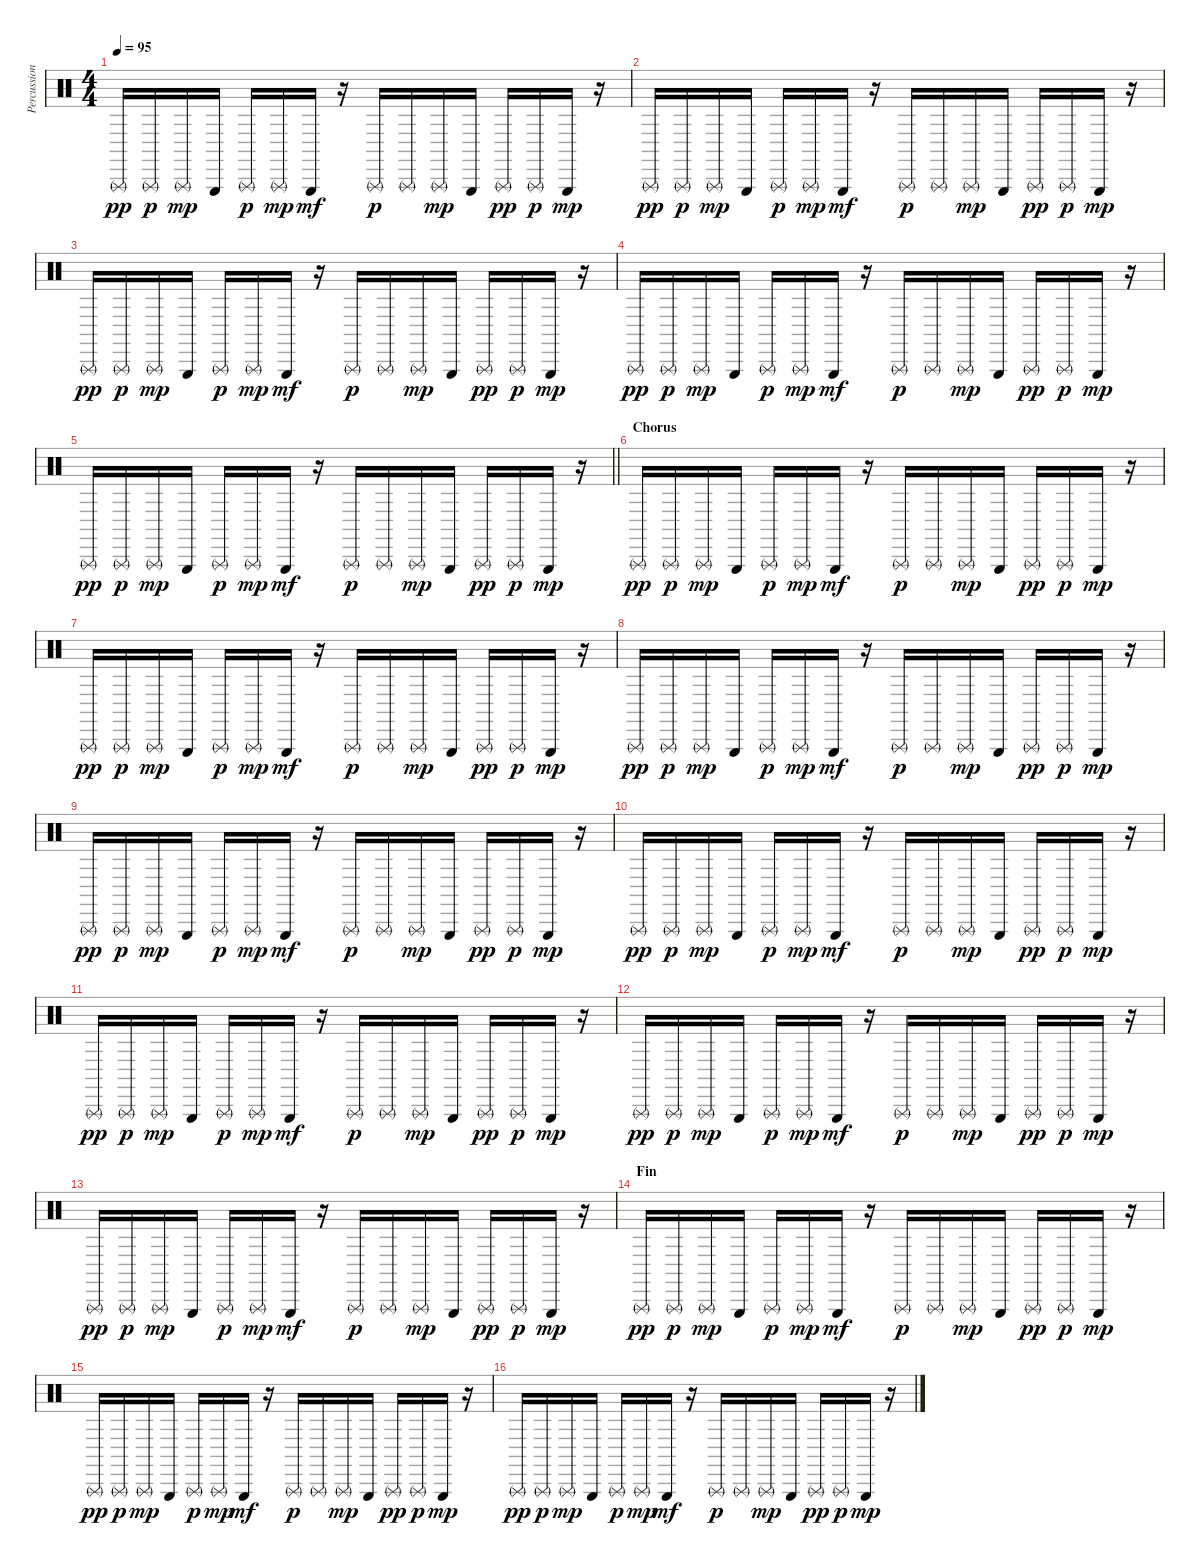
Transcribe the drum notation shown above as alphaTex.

\track ("Percussions" "Percussion") {instrument percussion}
\staff {score}
\articulation defaults
\ts (4 4)
\tempo 95
\clef neutral
\ks c "Triangle (rnute)".16{dy pp} "Triangle (rnute)".16{dy p} "Triangle (rnute)".16{dy mp} "Triangle (hit)".16 "Triangle (rnute)".16{dy p} "Triangle (rnute)".16{dy mp} "Triangle (hit)".16{dy mf}
r.16 "Triangle (rnute)".16{dy p} "Triangle (rnute)".16 "Triangle (rnute)".16{dy mp} "Triangle (hit)".16 "Triangle (rnute)".16{dy pp} "Triangle (rnute)".16{dy p} "Triangle (hit)".16{dy mp} r.16 |
"Triangle (rnute)".16{dy pp} "Triangle (rnute)".16{dy p} "Triangle (rnute)".16{dy mp} "Triangle (hit)".16 "Triangle (rnute)".16{dy p} "Triangle (rnute)".16{dy mp} "Triangle (hit)".16{dy mf} r.16 "Triangle (rnute)".16{dy p} "Triangle (rnute)".16 "Triangle (rnute)".16{dy mp} "Triangle (hit)".16 "Triangle (rnute)".16{dy pp} "Triangle (rnute)".16{dy p} "Triangle (hit)".16{dy mp} r.16 |
"Triangle (rnute)".16{dy pp} "Triangle (rnute)".16{dy p} "Triangle (rnute)".16{dy mp} "Triangle (hit)".16 "Triangle (rnute)".16{dy p} "Triangle (rnute)".16{dy mp} "Triangle (hit)".16{dy mf} r.16 "Triangle (rnute)".16{dy p} "Triangle (rnute)".16 "Triangle (rnute)".16{dy mp} "Triangle (hit)".16 "Triangle (rnute)".16{dy pp} "Triangle (rnute)".16{dy p} "Triangle (hit)".16{dy mp} r.16 |
"Triangle (rnute)".16{dy pp} "Triangle (rnute)".16{dy p} "Triangle (rnute)".16{dy mp} "Triangle (hit)".16 "Triangle (rnute)".16{dy p} "Triangle (rnute)".16{dy mp} "Triangle (hit)".16{dy mf} r.16 "Triangle (rnute)".16{dy p} "Triangle (rnute)".16 "Triangle (rnute)".16{dy mp} "Triangle (hit)".16 "Triangle (rnute)".16{dy pp} "Triangle (rnute)".16{dy p} "Triangle (hit)".16{dy mp} r.16 |
\barLineRight lightlight "Triangle (rnute)".16{dy pp} "Triangle (rnute)".16{dy p} "Triangle (rnute)".16{dy mp} "Triangle (hit)".16 "Triangle (rnute)".16{dy p} "Triangle (rnute)".16{dy mp} "Triangle (hit)".16{dy mf}
r.16 "Triangle (rnute)".16{dy p} "Triangle (rnute)".16 "Triangle (rnute)".16{dy mp} "Triangle (hit)".16 "Triangle (rnute)".16{dy pp} "Triangle (rnute)".16{dy p} "Triangle (hit)".16{dy mp} r.16 |
\section ("" "Chorus")
"Triangle (rnute)".16{dy pp} "Triangle (rnute)".16{dy p} "Triangle (rnute)".16{dy mp} "Triangle (hit)".16 "Triangle (rnute)".16{dy p} "Triangle (rnute)".16{dy mp} "Triangle (hit)".16{dy mf} r.16 "Triangle (rnute)".16{dy p} "Triangle (rnute)".16 "Triangle (rnute)".16{dy mp} "Triangle (hit)".16 "Triangle (rnute)".16{dy pp} "Triangle (rnute)".16{dy p} "Triangle (hit)".16{dy mp} r.16 |
"Triangle (rnute)".16{dy pp} "Triangle (rnute)".16{dy p} "Triangle (rnute)".16{dy mp} "Triangle (hit)".16 "Triangle (rnute)".16{dy p} "Triangle (rnute)".16{dy mp} "Triangle (hit)".16{dy mf} r.16 "Triangle (rnute)".16{dy p} "Triangle (rnute)".16 "Triangle (rnute)".16{dy mp} "Triangle (hit)".16 "Triangle (rnute)".16{dy pp} "Triangle (rnute)".16{dy p} "Triangle (hit)".16{dy mp} r.16 |
"Triangle (rnute)".16{dy pp} "Triangle (rnute)".16{dy p} "Triangle (rnute)".16{dy mp} "Triangle (hit)".16 "Triangle (rnute)".16{dy p} "Triangle (rnute)".16{dy mp} "Triangle (hit)".16{dy mf} r.16 "Triangle (rnute)".16{dy p} "Triangle (rnute)".16 "Triangle (rnute)".16{dy mp} "Triangle (hit)".16 "Triangle (rnute)".16{dy pp} "Triangle (rnute)".16{dy p} "Triangle (hit)".16{dy mp} r.16 |
"Triangle (rnute)".16{dy pp} "Triangle (rnute)".16{dy p} "Triangle (rnute)".16{dy mp} "Triangle (hit)".16 "Triangle (rnute)".16{dy p} "Triangle (rnute)".16{dy mp} "Triangle (hit)".16{dy mf} r.16 "Triangle (rnute)".16{dy p} "Triangle (rnute)".16 "Triangle (rnute)".16{dy mp} "Triangle (hit)".16 "Triangle (rnute)".16{dy pp} "Triangle (rnute)".16{dy p} "Triangle (hit)".16{dy mp} r.16 |
"Triangle (rnute)".16{dy pp} "Triangle (rnute)".16{dy p} "Triangle (rnute)".16{dy mp} "Triangle (hit)".16 "Triangle (rnute)".16{dy p} "Triangle (rnute)".16{dy mp} "Triangle (hit)".16{dy mf} r.16 "Triangle (rnute)".16{dy p} "Triangle (rnute)".16 "Triangle (rnute)".16{dy mp} "Triangle (hit)".16 "Triangle (rnute)".16{dy pp} "Triangle (rnute)".16{dy p} "Triangle (hit)".16{dy mp} r.16 |
"Triangle (rnute)".16{dy pp} "Triangle (rnute)".16{dy p} "Triangle (rnute)".16{dy mp} "Triangle (hit)".16 "Triangle (rnute)".16{dy p} "Triangle (rnute)".16{dy mp} "Triangle (hit)".16{dy mf} r.16 "Triangle (rnute)".16{dy p} "Triangle (rnute)".16 "Triangle (rnute)".16{dy mp} "Triangle (hit)".16 "Triangle (rnute)".16{dy pp} "Triangle (rnute)".16{dy p} "Triangle (hit)".16{dy mp} r.16 |
"Triangle (rnute)".16{dy pp} "Triangle (rnute)".16{dy p} "Triangle (rnute)".16{dy mp} "Triangle (hit)".16 "Triangle (rnute)".16{dy p} "Triangle (rnute)".16{dy mp} "Triangle (hit)".16{dy mf} r.16 "Triangle (rnute)".16{dy p} "Triangle (rnute)".16 "Triangle (rnute)".16{dy mp} "Triangle (hit)".16 "Triangle (rnute)".16{dy pp} "Triangle (rnute)".16{dy p} "Triangle (hit)".16{dy mp} r.16 |
"Triangle (rnute)".16{dy pp} "Triangle (rnute)".16{dy p} "Triangle (rnute)".16{dy mp} "Triangle (hit)".16 "Triangle (rnute)".16{dy p} "Triangle (rnute)".16{dy mp} "Triangle (hit)".16{dy mf} r.16 "Triangle (rnute)".16{dy p} "Triangle (rnute)".16 "Triangle (rnute)".16{dy mp} "Triangle (hit)".16 "Triangle (rnute)".16{dy pp} "Triangle (rnute)".16{dy p} "Triangle (hit)".16{dy mp} r.16 |
\section ("" "Fin")
"Triangle (rnute)".16{dy pp} "Triangle (rnute)".16{dy p} "Triangle (rnute)".16{dy mp} "Triangle (hit)".16 "Triangle (rnute)".16{dy p} "Triangle (rnute)".16{dy mp} "Triangle (hit)".16{dy mf} r.16 "Triangle (rnute)".16{dy p} "Triangle (rnute)".16 "Triangle (rnute)".16{dy mp} "Triangle (hit)".16 "Triangle (rnute)".16{dy pp} "Triangle (rnute)".16{dy p} "Triangle (hit)".16{dy mp} r.16 |
"Triangle (rnute)".16{dy pp} "Triangle (rnute)".16{dy p} "Triangle (rnute)".16{dy mp} "Triangle (hit)".16 "Triangle (rnute)".16{dy p} "Triangle (rnute)".16{dy mp} "Triangle (hit)".16{dy mf} r.16 "Triangle (rnute)".16{dy p} "Triangle (rnute)".16 "Triangle (rnute)".16{dy mp} "Triangle (hit)".16 "Triangle (rnute)".16{dy pp} "Triangle (rnute)".16{dy p} "Triangle (hit)".16{dy mp} r.16 |
"Triangle (rnute)".16{dy pp} "Triangle (rnute)".16{dy p} "Triangle (rnute)".16{dy mp} "Triangle (hit)".16 "Triangle (rnute)".16{dy p} "Triangle (rnute)".16{dy mp} "Triangle (hit)".16{dy mf} r.16 "Triangle (rnute)".16{dy p} "Triangle (rnute)".16 "Triangle (rnute)".16{dy mp} "Triangle (hit)".16 "Triangle (rnute)".16{dy pp} "Triangle (rnute)".16{dy p} "Triangle (hit)".16{dy mp} r.16
